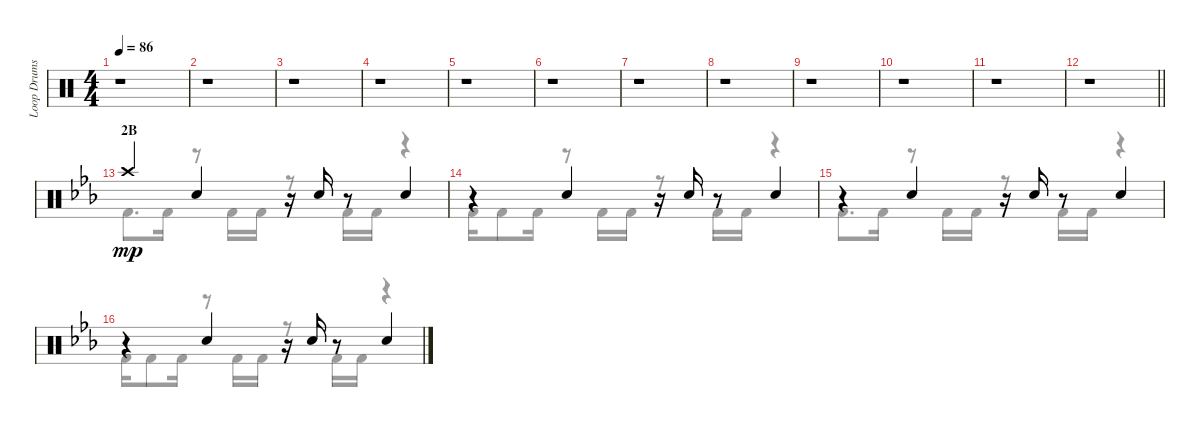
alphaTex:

\track ("Loop Drums I" "Loop Drums") {instrument percussion}
\staff {score}
\articulation defaults
\voice
\ts (4 4)
\tempo 86
\clef neutral
\ks c
r.1{dy mp} |
r.1 |
r.1 |
r.1 |
r.1 |
r.1 |
r.1 |
r.1 |
r.1 |
r.1 |
r.1 |
\barLineRight lightlight
r.1 |
\section ("" "2B")
\ks eb "Crash high (hit)".4 "Electric Snare (hit)".4
r.16 "Electric Snare (hit)".16 r.8 "Electric Snare (hit)".4 |
r.4 "Electric Snare (hit)".4 r.16 "Electric Snare (hit)".16 r.8 "Electric Snare (hit)".4 |
r.4 "Electric Snare (hit)".4 r.16 "Electric Snare (hit)".16 r.8 "Electric Snare (hit)".4 |
r.4 "Electric Snare (hit)".4 r.16 "Electric Snare (hit)".16 r.8 "Electric Snare (hit)".4
\voice
\clef neutral
\ottava regular
\simile none
\ks c
r.1{dy mp} |
r.1 |
r.1 |
r.1 |
r.1 |
r.1 |
r.1 |
r.1 |
r.1 |
r.1 |
r.1 |
\barLineRight lightlight
r.1 |
\ks eb "Kick (hit) 2".8{d} "Kick (hit) 2".16
r.8 "Kick (hit) 2".16 "Kick (hit) 2".16 r.8 "Kick (hit) 2".16 "Kick (hit) 2".16 r.4 |
"Kick (hit) 2".16 "Kick (hit) 2".8 "Kick (hit) 2".16 r.8 "Kick (hit) 2".16 "Kick (hit) 2".16 r.8 "Kick (hit) 2".16 "Kick (hit) 2".16 r.4 |
"Kick (hit) 2".8{d} "Kick (hit) 2".16 r.8 "Kick (hit) 2".16 "Kick (hit) 2".16 r.8 "Kick (hit) 2".16 "Kick (hit) 2".16 r.4 |
"Kick (hit) 2".16 "Kick (hit) 2".8 "Kick (hit) 2".16 r.8 "Kick (hit) 2".16 "Kick (hit) 2".16 r.8 "Kick (hit) 2".16 "Kick (hit) 2".16 r.4
